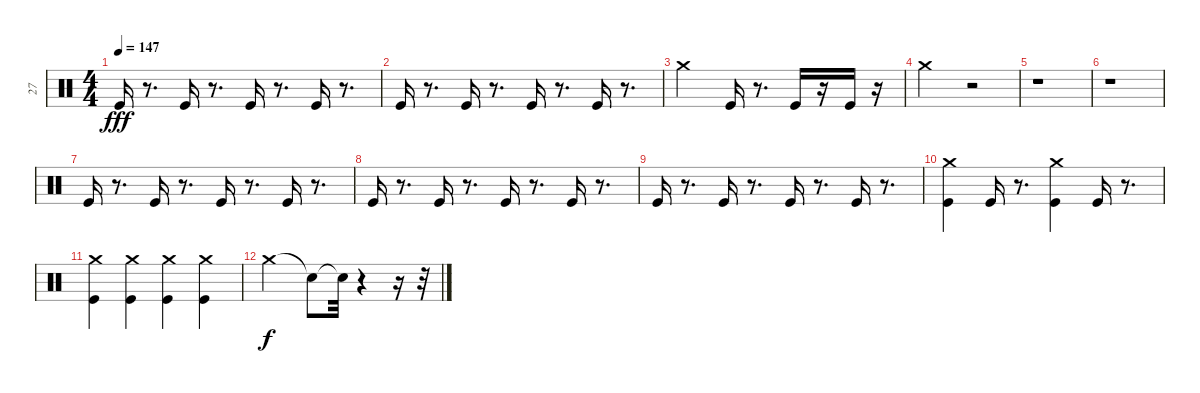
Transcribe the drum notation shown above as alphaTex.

\track ("27" "27") {instrument percussion}
\staff {score}
\articulation defaults
\ts (4 4)
\tempo 147
\clef neutral
\ks c "Kick (hit)".16{dy fff}
r.8{d} "Kick (hit)".16 r.8{d} "Kick (hit)".16 r.8{d} "Kick (hit)".16 r.8{d} |
"Kick (hit)".16 r.8{d} "Kick (hit)".16 r.8{d} "Kick (hit)".16 r.8{d} "Kick (hit)".16 r.8{d} |
"Crash medium (hit)".2 "Kick (hit)".16 r.8{d} "Kick (hit)".16 r.16 "Kick (hit)".16 r.16 |
"Crash medium (hit)".2 r.2 |
r.1 |
r.1 |
"Kick (hit)".16 r.8{d} "Kick (hit)".16 r.8{d} "Kick (hit)".16 r.8{d} "Kick (hit)".16 r.8{d} |
"Kick (hit)".16 r.8{d} "Kick (hit)".16 r.8{d} "Kick (hit)".16 r.8{d} "Kick (hit)".16 r.8{d} |
"Kick (hit)".16 r.8{d} "Kick (hit)".16 r.8{d} "Kick (hit)".16 r.8{d} "Kick (hit)".16 r.8{d} |
("Kick (hit)" "Crash medium (hit)").4 "Kick (hit)".16 r.8{d} ("Crash medium (hit)" "Kick (hit)").4 "Kick (hit)".16 r.8{d} |
("Crash medium (hit)" "Kick (hit)").4 ("Crash medium (hit)" "Kick (hit)").4 ("Crash medium (hit)" "Kick (hit)").4 ("Crash medium (hit)" "Kick (hit)").4 |
"Crash medium (hit)".2{dy f} "Snare (hit)"{t}.8 "Snare (hit)"{t}.32 r.4 r.16 r.32
